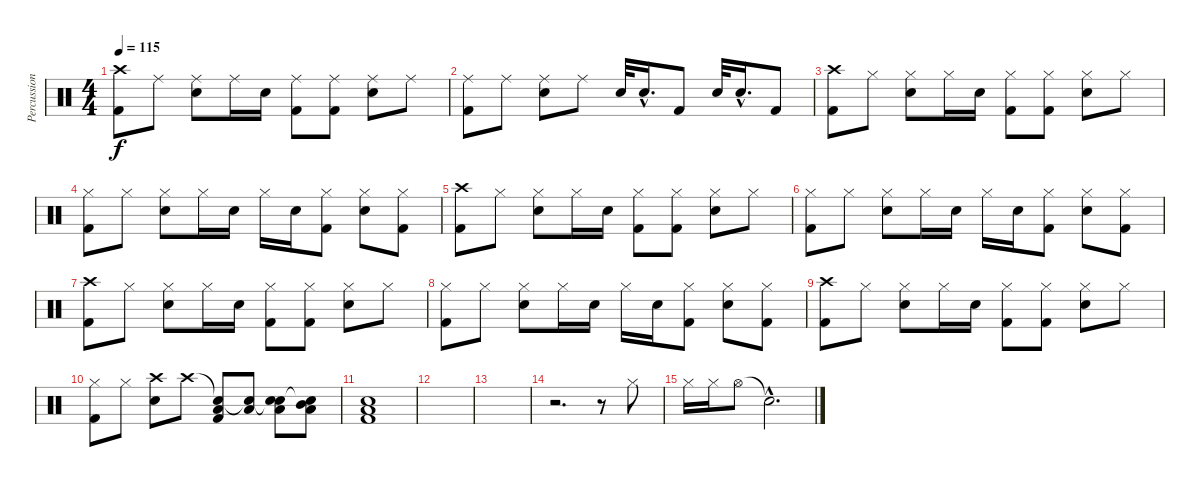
\track ("Percussion" "Percussion") {instrument percussion}
\staff {score}
\articulation defaults
\ts (4 4)
\tempo 115
\clef neutral
\ks c
("Crash high (hit)" "Kick (hit) 2").8{dy f} "Ride (middle)".8 ("Ride (middle)" "Snare (hit) 2").8 "Ride (middle)".16 "Snare (hit) 2".16 ("Ride (middle)" "Kick (hit) 2").8 ("Ride (middle)" "Kick (hit) 2").8 ("Ride (middle)" "Snare (hit) 2").8 "Ride (middle)".8 |
("Ride (middle)" "Kick (hit) 2").8 "Ride (middle)".8 ("Ride (middle)" "Snare (hit) 2").8 "Ride (middle)".8 "Snare (hit) 2".32 "Snare (hit) 2"{hac}.16{d} "Kick (hit) 2".8 "Snare (hit) 2".32 "Snare (hit) 2"{hac}.16{d} "Kick (hit) 2".8 |
("Crash high (hit)" "Kick (hit) 2").8 "Hi-Hat (closed)".8 ("Hi-Hat (closed)" "Snare (hit) 2").8 "Hi-Hat (closed)".16 "Snare (hit) 2".16 ("Hi-Hat (closed)" "Kick (hit) 2").8 ("Hi-Hat (closed)" "Kick (hit) 2").8 ("Hi-Hat (closed)" "Snare (hit) 2").8 "Hi-Hat (closed)".8 |
("Hi-Hat (closed)" "Kick (hit) 2").8 "Hi-Hat (closed)".8 ("Hi-Hat (closed)" "Snare (hit) 2").8 "Hi-Hat (closed)".16 "Snare (hit) 2".16 "Hi-Hat (closed)".16 "Snare (hit) 2".16 ("Hi-Hat (closed)" "Kick (hit) 2").8 ("Hi-Hat (closed)" "Snare (hit) 2").8 ("Hi-Hat (closed)" "Kick (hit) 2").8 |
("Crash high (hit)" "Kick (hit) 2").8 "Hi-Hat (closed)".8 ("Hi-Hat (closed)" "Snare (hit) 2").8 "Hi-Hat (closed)".16 "Snare (hit) 2".16 ("Hi-Hat (closed)" "Kick (hit) 2").8 ("Hi-Hat (closed)" "Kick (hit) 2").8 ("Hi-Hat (closed)" "Snare (hit) 2").8 "Hi-Hat (closed)".8 |
("Hi-Hat (closed)" "Kick (hit) 2").8 "Hi-Hat (closed)".8 ("Hi-Hat (closed)" "Snare (hit) 2").8 "Hi-Hat (closed)".16 "Snare (hit) 2".16 "Hi-Hat (closed)".16 "Snare (hit) 2".16 ("Hi-Hat (closed)" "Kick (hit) 2").8 ("Hi-Hat (closed)" "Snare (hit) 2").8 ("Hi-Hat (closed)" "Kick (hit) 2").8 |
("Crash high (hit)" "Kick (hit) 2").8 "Hi-Hat (closed)".8 ("Hi-Hat (closed)" "Snare (hit) 2").8 "Hi-Hat (closed)".16 "Snare (hit) 2".16 ("Hi-Hat (closed)" "Kick (hit) 2").8 ("Hi-Hat (closed)" "Kick (hit) 2").8 ("Hi-Hat (closed)" "Snare (hit) 2").8 "Hi-Hat (closed)".8 |
("Hi-Hat (closed)" "Kick (hit) 2").8 "Hi-Hat (closed)".8 ("Hi-Hat (closed)" "Snare (hit) 2").8 "Hi-Hat (closed)".16 "Snare (hit) 2".16 "Hi-Hat (closed)".16 "Snare (hit) 2".16 ("Hi-Hat (closed)" "Kick (hit) 2").8 ("Hi-Hat (closed)" "Snare (hit) 2").8 ("Hi-Hat (closed)" "Kick (hit) 2").8 |
("Crash high (hit)" "Kick (hit) 2").8 "Hi-Hat (closed)".8 ("Hi-Hat (closed)" "Snare (hit) 2").8 "Hi-Hat (closed)".16 "Snare (hit) 2".16 ("Hi-Hat (closed)" "Kick (hit) 2").8 ("Hi-Hat (closed)" "Kick (hit) 2").8 ("Hi-Hat (closed)" "Snare (hit) 2").8 "Hi-Hat (closed)".8 |
("Hi-Hat (closed)" "Kick (hit) 2").8 "Hi-Hat (closed)".8 ("Crash high (hit)" "Snare (hit) 2").8 "Crash high (hit)".8 ("Snare (hit)"{t} "Low Floor Tom (hit)" "Kick (hit) 2").8 ("Snare (hit)"{t} "Low Floor Tom (hit)").8 ("Snare (hit)"{t} "Low Floor Tom (hit)" "Snare (hit) 2").8 ("Snare (hit)"{t} "Low Floor Tom (hit)" "Mid Tom (hit)").8 |
("Low Floor Tom (hit)" "Snare (hit) 2" "Kick (hit) 2").1 |
|
|
r.2{d} r.8 "Hi-Hat (closed)".8 |
"Hi-Hat (closed)".16 "Hi-Hat (closed)".16 "Hi-Hat (open)".8 "Snare (hit)"{hac t}.2{d}
